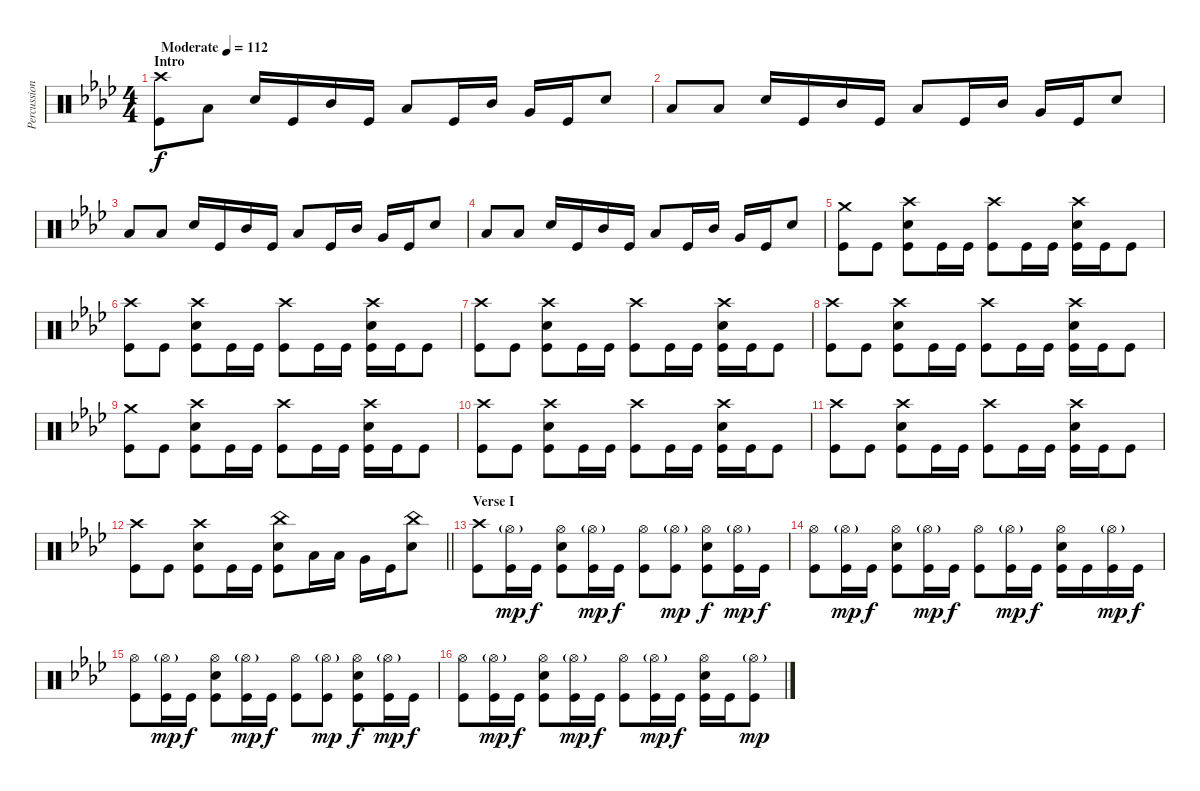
\track ("Percussion" "Percussion") {instrument percussion}
\staff {score}
\articulation defaults
\ts (4 4)
\section ("" "Intro")
\tempo (112 "Moderate")
\clef neutral
\ks ab
("Crash high (hit)" "Kick (hit)").8{dy f} "Low Tom (hit)".8 "Electric Snare (hit)".16 "Kick (hit)".16 "Mid Tom (hit)".16 "Kick (hit)".16 "Low Tom (hit)".8 "Kick (hit)".16 "Mid Tom (hit)".16 "Very Low Tom (hit)".16 "Kick (hit)".16 "Electric Snare (hit)".8 |
"Low Tom (hit)".8 "Low Tom (hit)".8 "Electric Snare (hit)".16 "Kick (hit)".16 "Mid Tom (hit)".16 "Kick (hit)".16 "Low Tom (hit)".8 "Kick (hit)".16 "Mid Tom (hit)".16 "Very Low Tom (hit)".16 "Kick (hit)".16 "Electric Snare (hit)".8 |
"Low Tom (hit)".8 "Low Tom (hit)".8 "Electric Snare (hit)".16 "Kick (hit)".16 "Mid Tom (hit)".16 "Kick (hit)".16 "Low Tom (hit)".8 "Kick (hit)".16 "Mid Tom (hit)".16 "Very Low Tom (hit)".16 "Kick (hit)".16 "Electric Snare (hit)".8 |
"Low Tom (hit)".8 "Low Tom (hit)".8 "Electric Snare (hit)".16 "Kick (hit)".16 "Mid Tom (hit)".16 "Kick (hit)".16 "Low Tom (hit)".8 "Kick (hit)".16 "Mid Tom (hit)".16 "Very Low Tom (hit)".16 "Kick (hit)".16 "Electric Snare (hit)".8 |
("Crash medium (hit)" "Kick (hit)").8 "Kick (hit)".8 ("Crash high (hit)" "Electric Snare (hit)" "Kick (hit)").8 "Kick (hit)".16 "Kick (hit)".16 ("Crash high (hit)" "Kick (hit)").8 "Kick (hit)".16 "Kick (hit)".16 ("Crash high (hit)" "Electric Snare (hit)" "Kick (hit)").16 "Kick (hit)".16 "Kick (hit)".8 |
("Crash high (hit)" "Kick (hit)").8 "Kick (hit)".8 ("Crash high (hit)" "Electric Snare (hit)" "Kick (hit)").8 "Kick (hit)".16 "Kick (hit)".16 ("Crash high (hit)" "Kick (hit)").8 "Kick (hit)".16 "Kick (hit)".16 ("Crash high (hit)" "Electric Snare (hit)" "Kick (hit)").16 "Kick (hit)".16 "Kick (hit)".8 |
("Crash high (hit)" "Kick (hit)").8 "Kick (hit)".8 ("Crash high (hit)" "Electric Snare (hit)" "Kick (hit)").8 "Kick (hit)".16 "Kick (hit)".16 ("Crash high (hit)" "Kick (hit)").8 "Kick (hit)".16 "Kick (hit)".16 ("Crash high (hit)" "Electric Snare (hit)" "Kick (hit)").16 "Kick (hit)".16 "Kick (hit)".8 |
("Crash high (hit)" "Kick (hit)").8 "Kick (hit)".8 ("Crash high (hit)" "Electric Snare (hit)" "Kick (hit)").8 "Kick (hit)".16 "Kick (hit)".16 ("Crash high (hit)" "Kick (hit)").8 "Kick (hit)".16 "Kick (hit)".16 ("Crash high (hit)" "Electric Snare (hit)" "Kick (hit)").16 "Kick (hit)".16 "Kick (hit)".8 |
("Crash medium (hit)" "Kick (hit)").8 "Kick (hit)".8 ("Crash high (hit)" "Electric Snare (hit)" "Kick (hit)").8 "Kick (hit)".16 "Kick (hit)".16 ("Crash high (hit)" "Kick (hit)").8 "Kick (hit)".16 "Kick (hit)".16 ("Crash high (hit)" "Electric Snare (hit)" "Kick (hit)").16 "Kick (hit)".16 "Kick (hit)".8 |
("Crash high (hit)" "Kick (hit)").8 "Kick (hit)".8 ("Crash high (hit)" "Electric Snare (hit)" "Kick (hit)").8 "Kick (hit)".16 "Kick (hit)".16 ("Crash high (hit)" "Kick (hit)").8 "Kick (hit)".16 "Kick (hit)".16 ("Crash high (hit)" "Electric Snare (hit)" "Kick (hit)").16 "Kick (hit)".16 "Kick (hit)".8 |
("Crash high (hit)" "Kick (hit)").8 "Kick (hit)".8 ("Crash high (hit)" "Electric Snare (hit)" "Kick (hit)").8 "Kick (hit)".16 "Kick (hit)".16 ("Crash high (hit)" "Kick (hit)").8 "Kick (hit)".16 "Kick (hit)".16 ("Crash high (hit)" "Electric Snare (hit)" "Kick (hit)").16 "Kick (hit)".16 "Kick (hit)".8 |
\barLineRight lightlight
("Crash high (hit)" "Kick (hit)").8 "Kick (hit)".8 ("Crash high (hit)" "Electric Snare (hit)" "Kick (hit)").8 "Kick (hit)".16 "Kick (hit)".16 ("China (hit)" "Electric Snare (hit)" "Kick (hit)").8 "Low Tom (hit)".16 "Low Tom (hit)".16 "Very Low Tom (hit)".16 "Kick (hit)".16 ("China (hit)" "Electric Snare (hit)").8 |
\section ("" "Verse I")
("Crash high (hit)" "Kick (hit)").8 ("Hi-Hat (open)"{g} "Kick (hit)").16{dy mp} "Kick (hit)".16{dy f} ("Hi-Hat (open)" "Electric Snare (hit)" "Kick (hit)").8 ("Hi-Hat (open)"{g} "Kick (hit)").16{dy mp} "Kick (hit)".16{dy f} ("Hi-Hat (open)" "Kick (hit)").8 ("Hi-Hat (open)"{g} "Kick (hit)").8{dy mp} ("Hi-Hat (open)" "Electric Snare (hit)" "Kick (hit)").8{dy f} ("Hi-Hat (open)"{g} "Kick (hit)").16{dy mp} "Kick (hit)".16{dy f} |
("Hi-Hat (open)" "Kick (hit)").8 ("Hi-Hat (open)"{g} "Kick (hit)").16{dy mp} "Kick (hit)".16{dy f} ("Hi-Hat (open)" "Electric Snare (hit)" "Kick (hit)").8 ("Hi-Hat (open)"{g} "Kick (hit)").16{dy mp} "Kick (hit)".16{dy f} ("Hi-Hat (open)" "Kick (hit)").8 ("Hi-Hat (open)"{g} "Kick (hit)").16{dy mp} "Kick (hit)".16{dy f} ("Hi-Hat (open)" "Electric Snare (hit)" "Kick (hit)").16 "Kick (hit)".16 ("Hi-Hat (open)"{g} "Kick (hit)").16{dy mp} "Kick (hit)".16{dy f} |
("Hi-Hat (open)" "Kick (hit)").8 ("Hi-Hat (open)"{g} "Kick (hit)").16{dy mp} "Kick (hit)".16{dy f} ("Hi-Hat (open)" "Electric Snare (hit)" "Kick (hit)").8 ("Hi-Hat (open)"{g} "Kick (hit)").16{dy mp} "Kick (hit)".16{dy f} ("Hi-Hat (open)" "Kick (hit)").8 ("Hi-Hat (open)"{g} "Kick (hit)").8{dy mp} ("Hi-Hat (open)" "Electric Snare (hit)" "Kick (hit)").8{dy f} ("Hi-Hat (open)"{g} "Kick (hit)").16{dy mp} "Kick (hit)".16{dy f} |
("Hi-Hat (open)" "Kick (hit)").8 ("Hi-Hat (open)"{g} "Kick (hit)").16{dy mp} "Kick (hit)".16{dy f} ("Hi-Hat (open)" "Electric Snare (hit)" "Kick (hit)").8 ("Hi-Hat (open)"{g} "Kick (hit)").16{dy mp} "Kick (hit)".16{dy f} ("Hi-Hat (open)" "Kick (hit)").8 ("Hi-Hat (open)"{g} "Kick (hit)").16{dy mp} "Kick (hit)".16{dy f} ("Hi-Hat (open)" "Electric Snare (hit)" "Kick (hit)").16 "Kick (hit)".16 ("Hi-Hat (open)"{g} "Kick (hit)").8{dy mp}
